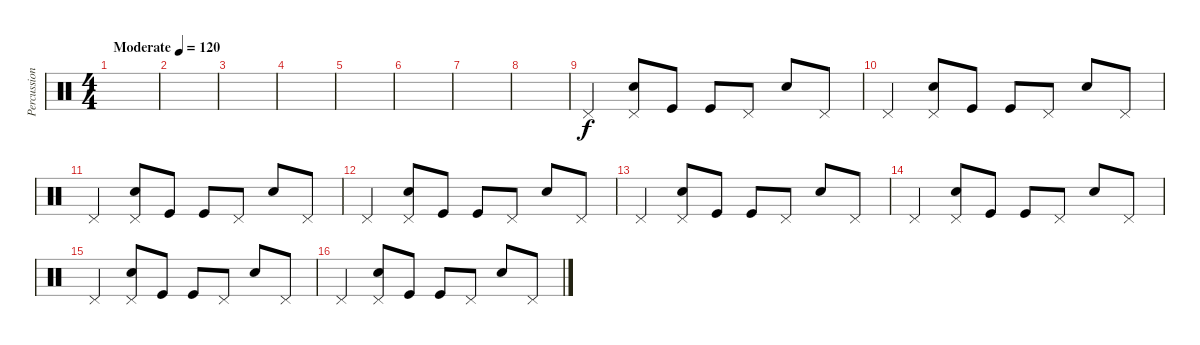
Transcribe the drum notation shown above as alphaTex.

\track ("Percussion" "Percussion") {instrument percussion}
\staff {score}
\articulation defaults
\ts (4 4)
\tempo (120 "Moderate")
\clef neutral
\ks c
|
|
|
|
|
|
|
|
"Pedal Hi-Hat (hit)".4 ("Pedal Hi-Hat (hit)" "Snare (hit) 2").8 "Kick (hit)".8 "Kick (hit)".8 "Pedal Hi-Hat (hit)".8 "Snare (hit) 2".8 "Pedal Hi-Hat (hit)".8 |
"Pedal Hi-Hat (hit)".4 ("Pedal Hi-Hat (hit)" "Snare (hit) 2").8 "Kick (hit)".8 "Kick (hit)".8 "Pedal Hi-Hat (hit)".8 "Snare (hit) 2".8 "Pedal Hi-Hat (hit)".8 |
"Pedal Hi-Hat (hit)".4 ("Pedal Hi-Hat (hit)" "Snare (hit) 2").8 "Kick (hit)".8 "Kick (hit)".8 "Pedal Hi-Hat (hit)".8 "Snare (hit) 2".8 "Pedal Hi-Hat (hit)".8 |
"Pedal Hi-Hat (hit)".4 ("Pedal Hi-Hat (hit)" "Snare (hit) 2").8 "Kick (hit)".8 "Kick (hit)".8 "Pedal Hi-Hat (hit)".8 "Snare (hit) 2".8 "Pedal Hi-Hat (hit)".8 |
"Pedal Hi-Hat (hit)".4 ("Pedal Hi-Hat (hit)" "Snare (hit) 2").8 "Kick (hit)".8 "Kick (hit)".8 "Pedal Hi-Hat (hit)".8 "Snare (hit) 2".8 "Pedal Hi-Hat (hit)".8 |
"Pedal Hi-Hat (hit)".4 ("Pedal Hi-Hat (hit)" "Snare (hit) 2").8 "Kick (hit)".8 "Kick (hit)".8 "Pedal Hi-Hat (hit)".8 "Snare (hit) 2".8 "Pedal Hi-Hat (hit)".8 |
"Pedal Hi-Hat (hit)".4 ("Pedal Hi-Hat (hit)" "Snare (hit) 2").8 "Kick (hit)".8 "Kick (hit)".8 "Pedal Hi-Hat (hit)".8 "Snare (hit) 2".8 "Pedal Hi-Hat (hit)".8 |
"Pedal Hi-Hat (hit)".4 ("Pedal Hi-Hat (hit)" "Snare (hit) 2").8 "Kick (hit)".8 "Kick (hit)".8 "Pedal Hi-Hat (hit)".8 "Snare (hit) 2".8 "Pedal Hi-Hat (hit)".8
